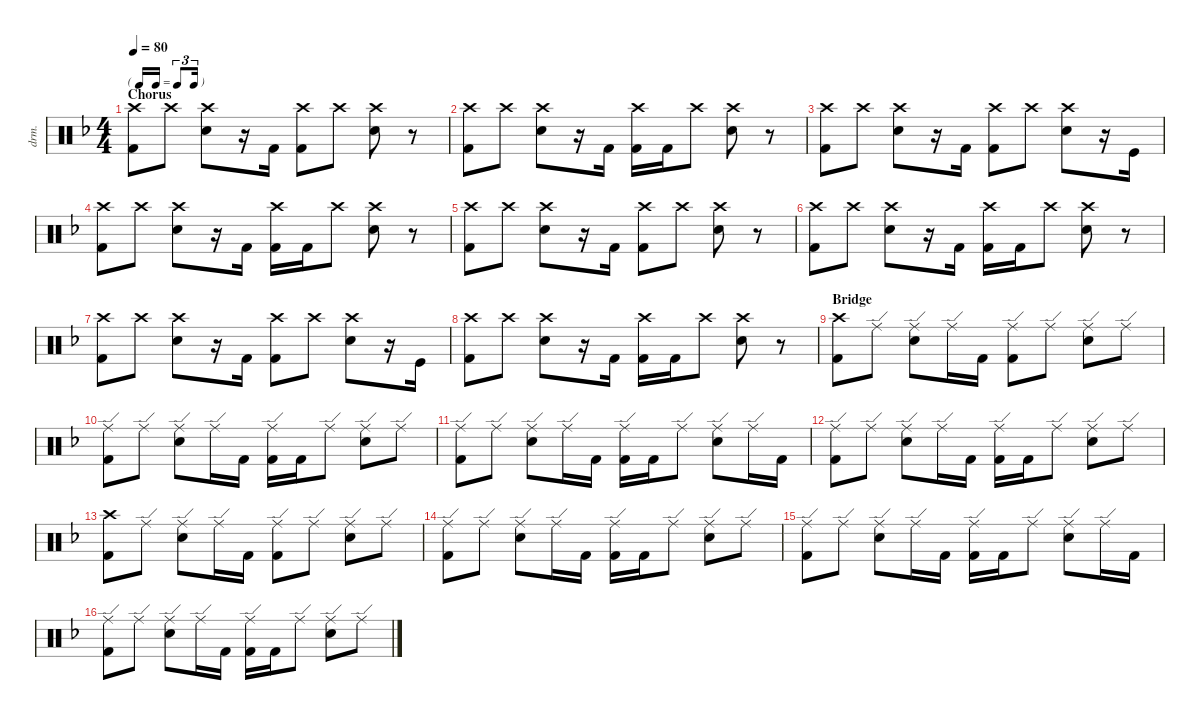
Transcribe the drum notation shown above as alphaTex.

\defaultSystemsLayout 4
\hideDynamics
\bracketExtendMode nobrackets
\otherSystemsTrackNameOrientation horizontal
\track ("Drumkit" "drm.") {instrument percussion}
\staff {score}
\articulation defaults
\ts (4 4)
\tf triplet16th
\section ("" "Chorus")
\tempo 80
\clef neutral
\ks dminor
("Kick (hit) 2"{acc forcenatural} "Crash high (hit)"{acc forcenatural}).8{dy mf beam Down} "Crash high (hit)"{acc forcenatural}.8{beam Down} ("Snare (hit) 2"{acc forcenatural} "Crash high (hit)"{acc forcenatural}).8{beam Down} r.16{beam Down} "Kick (hit) 2"{acc forcenatural}.16{beam Down} ("Kick (hit) 2"{acc forcenatural} "Crash high (hit)"{acc forcenatural}).8{beam Down} "Crash high (hit)"{acc forcenatural}.8{beam Down} ("Snare (hit) 2"{acc forcenatural} "Crash high (hit)"{acc forcenatural}).8{beam Down} r.8{beam Down} |
("Kick (hit) 2"{acc forcenatural} "Crash high (hit)"{acc forcenatural}).8{beam Down} "Crash high (hit)"{acc forcenatural}.8{beam Down} ("Snare (hit) 2"{acc forcenatural} "Crash high (hit)"{acc forcenatural}).8{beam Down} r.16{beam Down} "Kick (hit) 2"{acc forcenatural}.16{beam Down} ("Kick (hit) 2"{acc forcenatural} "Crash high (hit)"{acc forcenatural}).16{beam Down} "Kick (hit) 2"{acc forcenatural}.16{beam Down} "Crash high (hit)"{acc forcenatural}.8{beam Down} ("Snare (hit) 2"{acc forcenatural} "Crash high (hit)"{acc forcenatural}).8{beam Down} r.8{beam Down} |
("Kick (hit) 2"{acc forcenatural} "Crash high (hit)"{acc forcenatural}).8{beam Down} "Crash high (hit)"{acc forcenatural}.8{beam Down} ("Snare (hit) 2"{acc forcenatural} "Crash high (hit)"{acc forcenatural}).8{beam Down} r.16{beam Down} "Kick (hit) 2"{acc forcenatural}.16{beam Down} ("Kick (hit) 2"{acc forcenatural} "Crash high (hit)"{acc forcenatural}).8{beam Down} "Crash high (hit)"{acc forcenatural}.8{beam Down} ("Snare (hit) 2"{acc forcenatural} "Crash high (hit)"{acc forcenatural}).8{beam Down} r.16{beam Down} "Kick (hit)"{acc forcenatural}.16{beam Down} |
("Kick (hit) 2"{acc forcenatural} "Crash high (hit)"{acc forcenatural}).8{beam Down} "Crash high (hit)"{acc forcenatural}.8{beam Down} ("Snare (hit) 2"{acc forcenatural} "Crash high (hit)"{acc forcenatural}).8{beam Down} r.16{beam Down} "Kick (hit) 2"{acc forcenatural}.16{beam Down} ("Kick (hit) 2"{acc forcenatural} "Crash high (hit)"{acc forcenatural}).16{beam Down} "Kick (hit) 2"{acc forcenatural}.16{beam Down} "Crash high (hit)"{acc forcenatural}.8{beam Down} ("Snare (hit) 2"{acc forcenatural} "Crash high (hit)"{acc forcenatural}).8{beam Down} r.8{beam Down} |
("Kick (hit) 2"{acc forcenatural} "Crash high (hit)"{acc forcenatural}).8{beam Down} "Crash high (hit)"{acc forcenatural}.8{beam Down} ("Snare (hit) 2"{acc forcenatural} "Crash high (hit)"{acc forcenatural}).8{beam Down} r.16{beam Down} "Kick (hit) 2"{acc forcenatural}.16{beam Down} ("Kick (hit) 2"{acc forcenatural} "Crash high (hit)"{acc forcenatural}).8{beam Down} "Crash high (hit)"{acc forcenatural}.8{beam Down} ("Snare (hit) 2"{acc forcenatural} "Crash high (hit)"{acc forcenatural}).8{beam Down} r.8{beam Down} |
("Kick (hit) 2"{acc forcenatural} "Crash high (hit)"{acc forcenatural}).8{beam Down} "Crash high (hit)"{acc forcenatural}.8{beam Down} ("Snare (hit) 2"{acc forcenatural} "Crash high (hit)"{acc forcenatural}).8{beam Down} r.16{beam Down} "Kick (hit) 2"{acc forcenatural}.16{beam Down} ("Kick (hit) 2"{acc forcenatural} "Crash high (hit)"{acc forcenatural}).16{beam Down} "Kick (hit) 2"{acc forcenatural}.16{beam Down} "Crash high (hit)"{acc forcenatural}.8{beam Down} ("Snare (hit) 2"{acc forcenatural} "Crash high (hit)"{acc forcenatural}).8{beam Down} r.8{beam Down} |
("Kick (hit) 2"{acc forcenatural} "Crash high (hit)"{acc forcenatural}).8{beam Down} "Crash high (hit)"{acc forcenatural}.8{beam Down} ("Snare (hit) 2"{acc forcenatural} "Crash high (hit)"{acc forcenatural}).8{beam Down} r.16{beam Down} "Kick (hit) 2"{acc forcenatural}.16{beam Down} ("Kick (hit) 2"{acc forcenatural} "Crash high (hit)"{acc forcenatural}).8{beam Down} "Crash high (hit)"{acc forcenatural}.8{beam Down} ("Snare (hit) 2"{acc forcenatural} "Crash high (hit)"{acc forcenatural}).8{beam Down} r.16{beam Down} "Kick (hit)"{acc forcenatural}.16{beam Down} |
("Kick (hit) 2"{acc forcenatural} "Crash high (hit)"{acc forcenatural}).8{beam Down} "Crash high (hit)"{acc forcenatural}.8{beam Down} ("Snare (hit) 2"{acc forcenatural} "Crash high (hit)"{acc forcenatural}).8{beam Down} r.16{beam Down} "Kick (hit) 2"{acc forcenatural}.16{beam Down} ("Kick (hit) 2"{acc forcenatural} "Crash high (hit)"{acc forcenatural}).16{beam Down} "Kick (hit) 2"{acc forcenatural}.16{beam Down} "Crash high (hit)"{acc forcenatural}.8{beam Down} ("Snare (hit) 2"{acc forcenatural} "Crash high (hit)"{acc forcenatural}).8{beam Down} r.8{beam Down} |
\section ("" "Bridge")
("Kick (hit) 2"{acc forcenatural} "Crash high (hit)"{acc forcenatural}).8{beam Down} "Ride (edge)"{acc forcenatural}.8{beam Down} ("Snare (hit) 2"{acc forcenatural} "Ride (edge)"{acc forcenatural}).8{beam Down} "Ride (edge)"{acc forcenatural}.16{beam Down} "Kick (hit) 2"{acc forcenatural}.16{beam Down} ("Kick (hit) 2"{acc forcenatural} "Ride (edge)"{acc forcenatural}).8{beam Down} "Ride (edge)"{acc forcenatural}.8{beam Down} ("Snare (hit) 2"{acc forcenatural} "Ride (edge)"{acc forcenatural}).8{beam Down} "Ride (edge)"{acc forcenatural}.8{beam Down} |
("Kick (hit) 2"{acc forcenatural} "Ride (edge)"{acc forcenatural}).8{beam Down} "Ride (edge)"{acc forcenatural}.8{beam Down} ("Snare (hit) 2"{acc forcenatural} "Ride (edge)"{acc forcenatural}).8{beam Down} "Ride (edge)"{acc forcenatural}.16{beam Down} "Kick (hit) 2"{acc forcenatural}.16{beam Down} ("Kick (hit) 2"{acc forcenatural} "Ride (edge)"{acc forcenatural}).16{beam Down} "Kick (hit) 2"{acc forcenatural}.16{beam Down} "Ride (edge)"{acc forcenatural}.8{beam Down} ("Snare (hit) 2"{acc forcenatural} "Ride (edge)"{acc forcenatural}).8{beam Down} "Ride (edge)"{acc forcenatural}.8{beam Down} |
("Kick (hit) 2"{acc forcenatural} "Ride (edge)"{acc forcenatural}).8{beam Down} "Ride (edge)"{acc forcenatural}.8{beam Down} ("Snare (hit) 2"{acc forcenatural} "Ride (edge)"{acc forcenatural}).8{beam Down} "Ride (edge)"{acc forcenatural}.16{beam Down} "Kick (hit) 2"{acc forcenatural}.16{beam Down} ("Kick (hit) 2"{acc forcenatural} "Ride (edge)"{acc forcenatural}).16{beam Down} "Kick (hit) 2"{acc forcenatural}.16{beam Down} "Ride (edge)"{acc forcenatural}.8{beam Down} ("Snare (hit) 2"{acc forcenatural} "Ride (edge)"{acc forcenatural}).8{beam Down} "Ride (edge)"{acc forcenatural}.16{beam Down} "Kick (hit) 2"{acc forcenatural}.16{beam Down} |
("Kick (hit) 2"{acc forcenatural} "Ride (edge)"{acc forcenatural}).8{beam Down} "Ride (edge)"{acc forcenatural}.8{beam Down} ("Snare (hit) 2"{acc forcenatural} "Ride (edge)"{acc forcenatural}).8{beam Down} "Ride (edge)"{acc forcenatural}.16{beam Down} "Kick (hit) 2"{acc forcenatural}.16{beam Down} ("Kick (hit) 2"{acc forcenatural} "Ride (edge)"{acc forcenatural}).16{beam Down} "Kick (hit) 2"{acc forcenatural}.16{beam Down} "Ride (edge)"{acc forcenatural}.8{beam Down} ("Snare (hit) 2"{acc forcenatural} "Ride (edge)"{acc forcenatural}).8{beam Down} "Ride (edge)"{acc forcenatural}.8{beam Down} |
("Kick (hit) 2"{acc forcenatural} "Crash high (hit)"{acc forcenatural}).8{beam Down} "Ride (edge)"{acc forcenatural}.8{beam Down} ("Snare (hit) 2"{acc forcenatural} "Ride (edge)"{acc forcenatural}).8{beam Down} "Ride (edge)"{acc forcenatural}.16{beam Down} "Kick (hit) 2"{acc forcenatural}.16{beam Down} ("Kick (hit) 2"{acc forcenatural} "Ride (edge)"{acc forcenatural}).8{beam Down} "Ride (edge)"{acc forcenatural}.8{beam Down} ("Snare (hit) 2"{acc forcenatural} "Ride (edge)"{acc forcenatural}).8{beam Down} "Ride (edge)"{acc forcenatural}.8{beam Down} |
("Kick (hit) 2"{acc forcenatural} "Ride (edge)"{acc forcenatural}).8{beam Down} "Ride (edge)"{acc forcenatural}.8{beam Down} ("Snare (hit) 2"{acc forcenatural} "Ride (edge)"{acc forcenatural}).8{beam Down} "Ride (edge)"{acc forcenatural}.16{beam Down} "Kick (hit) 2"{acc forcenatural}.16{beam Down} ("Kick (hit) 2"{acc forcenatural} "Ride (edge)"{acc forcenatural}).16{beam Down} "Kick (hit) 2"{acc forcenatural}.16{beam Down} "Ride (edge)"{acc forcenatural}.8{beam Down} ("Snare (hit) 2"{acc forcenatural} "Ride (edge)"{acc forcenatural}).8{beam Down} "Ride (edge)"{acc forcenatural}.8{beam Down} |
("Kick (hit) 2"{acc forcenatural} "Ride (edge)"{acc forcenatural}).8{beam Down} "Ride (edge)"{acc forcenatural}.8{beam Down} ("Snare (hit) 2"{acc forcenatural} "Ride (edge)"{acc forcenatural}).8{beam Down} "Ride (edge)"{acc forcenatural}.16{beam Down} "Kick (hit) 2"{acc forcenatural}.16{beam Down} ("Kick (hit) 2"{acc forcenatural} "Ride (edge)"{acc forcenatural}).16{beam Down} "Kick (hit) 2"{acc forcenatural}.16{beam Down} "Ride (edge)"{acc forcenatural}.8{beam Down} ("Snare (hit) 2"{acc forcenatural} "Ride (edge)"{acc forcenatural}).8{beam Down} "Ride (edge)"{acc forcenatural}.16{beam Down} "Kick (hit) 2"{acc forcenatural}.16{beam Down} |
("Kick (hit) 2"{acc forcenatural} "Ride (edge)"{acc forcenatural}).8{beam Down} "Ride (edge)"{acc forcenatural}.8{beam Down} ("Snare (hit) 2"{acc forcenatural} "Ride (edge)"{acc forcenatural}).8{beam Down} "Ride (edge)"{acc forcenatural}.16{beam Down} "Kick (hit) 2"{acc forcenatural}.16{beam Down} ("Kick (hit) 2"{acc forcenatural} "Ride (edge)"{acc forcenatural}).16{beam Down} "Kick (hit) 2"{acc forcenatural}.16{beam Down} "Ride (edge)"{acc forcenatural}.8{beam Down} ("Snare (hit) 2"{acc forcenatural} "Ride (edge)"{acc forcenatural}).8{beam Down} "Ride (edge)"{acc forcenatural}.8{beam Down}
